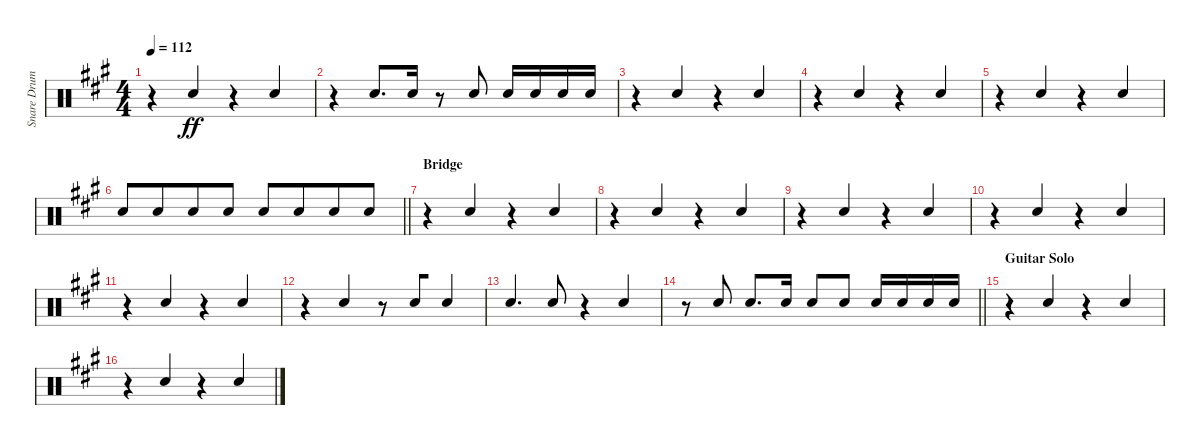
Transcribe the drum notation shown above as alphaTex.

\track ("Snare Drum" "Snare Drum") {instrument percussion}
\staff {score}
\articulation defaults
\ts (4 4)
\tempo 112
\clef neutral
\ks f#minor
r.4{dy ff} "Electric Snare (hit)".4{beam Up} r.4 "Electric Snare (hit)".4{beam Up} |
r.4 "Electric Snare (hit)".8{d beam Up} "Electric Snare (hit)".16{beam Up} r.8 "Electric Snare (hit)".8{beam Up} "Electric Snare (hit)".16{beam Up} "Electric Snare (hit)".16{beam Up} "Electric Snare (hit)".16{beam Up} "Electric Snare (hit)".16{beam Up} |
r.4 "Electric Snare (hit)".4{beam Up} r.4 "Electric Snare (hit)".4{beam Up} |
r.4 "Electric Snare (hit)".4{beam Up} r.4 "Electric Snare (hit)".4{beam Up} |
r.4 "Electric Snare (hit)".4{beam Up} r.4 "Electric Snare (hit)".4{beam Up} |
\barLineRight lightlight "Electric Snare (hit)".8{beam Up} "Electric Snare (hit)".8{volume 2 beam Up beam merge} "Electric Snare (hit)".8{beam Up} "Electric Snare (hit)".8{beam Up} "Electric Snare (hit)".8{volume 13 beam Up} "Electric Snare (hit)".8{beam Up beam merge} "Electric Snare (hit)".8{beam Up} "Electric Snare (hit)".8{beam Up}
|
\section ("" "Bridge")
r.4 "Electric Snare (hit)".4{beam Up} r.4 "Electric Snare (hit)".4{beam Up} |
r.4 "Electric Snare (hit)".4{beam Up} r.4 "Electric Snare (hit)".4{beam Up} |
r.4 "Electric Snare (hit)".4{beam Up} r.4 "Electric Snare (hit)".4{beam Up} |
r.4 "Electric Snare (hit)".4{beam Up} r.4 "Electric Snare (hit)".4{beam Up} |
r.4 "Electric Snare (hit)".4{beam Up} r.4 "Electric Snare (hit)".4{beam Up} |
r.4 "Electric Snare (hit)".4{beam Up} r.8 "Electric Snare (hit)".8{beam Up beam merge} "Electric Snare (hit)".4{beam Up} |
"Electric Snare (hit)".4{d beam Up} "Electric Snare (hit)".8{beam Up} r.4 "Electric Snare (hit)".4{beam Up} |
\barLineRight lightlight
r.8 "Electric Snare (hit)".8{beam Up} "Electric Snare (hit)".8{d beam Up} "Electric Snare (hit)".16{beam Up} "Electric Snare (hit)".8{beam Up} "Electric Snare (hit)".8{beam Up} "Electric Snare (hit)".16{beam Up} "Electric Snare (hit)".16{beam Up} "Electric Snare (hit)".16{beam Up} "Electric Snare (hit)".16{beam Up} |
\section ("" "Guitar Solo")
r.4 "Electric Snare (hit)".4{beam Up} r.4 "Electric Snare (hit)".4{beam Up} |
r.4 "Electric Snare (hit)".4{beam Up} r.4 "Electric Snare (hit)".4{beam Up}
